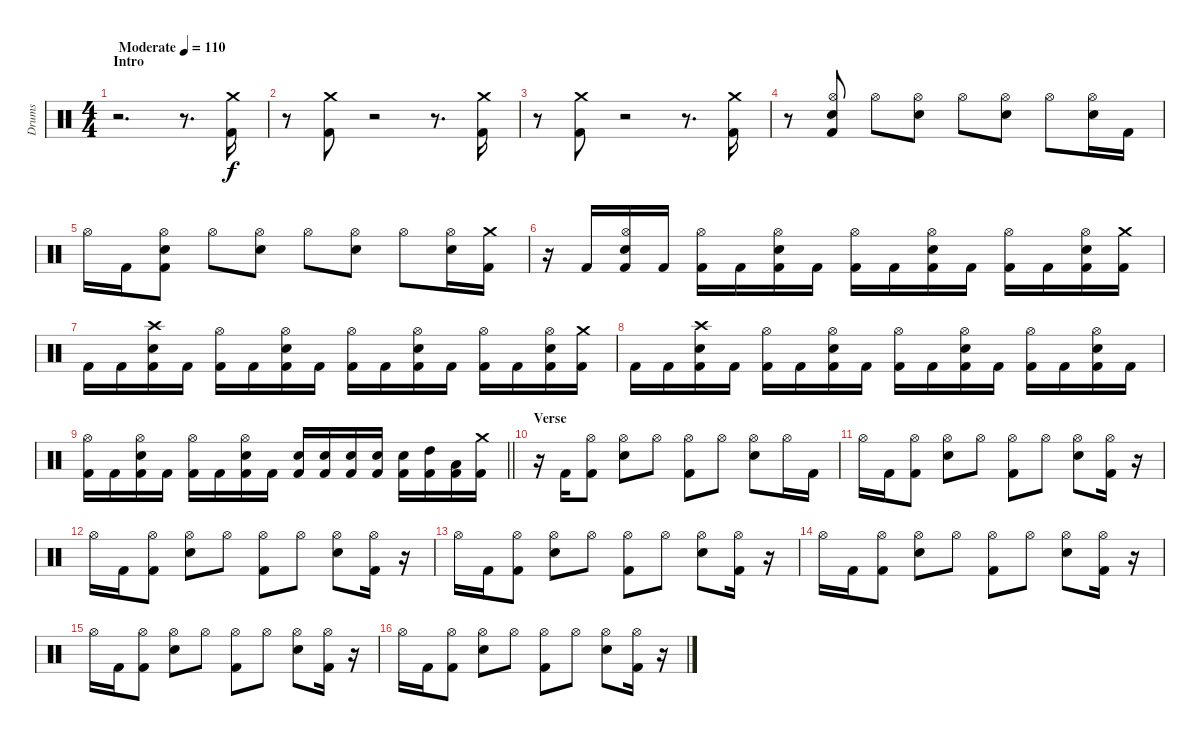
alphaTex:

\track ("Drums" "Drums") {instrument percussion}
\staff {score}
\articulation defaults
\ts (4 4)
\section ("" "Intro")
\tempo (110 "Moderate")
\clef neutral
\ks c
r.2{d dy f} r.8{d} ("Crash medium (hit)" "Kick (hit) 2").16 |
r.8 ("Crash medium (hit)" "Kick (hit) 2").8 r.2 r.8{d} ("Crash medium (hit)" "Kick (hit) 2").16 |
r.8 ("Crash medium (hit)" "Kick (hit) 2").8 r.2 r.8{d} ("Crash medium (hit)" "Kick (hit) 2").16 |
r.8 ("Hi-Hat (open)" "Snare (hit) 2" "Kick (hit) 2").8 "Hi-Hat (open)".8 ("Hi-Hat (open)" "Snare (hit) 2").8 "Hi-Hat (open)".8 ("Hi-Hat (open)" "Snare (hit) 2").8 "Hi-Hat (open)".8 ("Hi-Hat (open)" "Snare (hit) 2").16 "Kick (hit) 2".16 |
"Hi-Hat (open)".16 "Kick (hit) 2".16 ("Hi-Hat (open)" "Snare (hit) 2" "Kick (hit) 2").8 "Hi-Hat (open)".8 ("Hi-Hat (open)" "Snare (hit) 2").8 "Hi-Hat (open)".8 ("Hi-Hat (open)" "Snare (hit) 2").8 "Hi-Hat (open)".8 ("Hi-Hat (open)" "Snare (hit) 2").16 ("Crash medium (hit)" "Kick (hit) 2").16 |
r.16 "Kick (hit) 2".16 ("Hi-Hat (open)" "Snare (hit) 2" "Kick (hit) 2").16 "Kick (hit) 2".16 ("Hi-Hat (open)" "Kick (hit) 2").16 "Kick (hit) 2".16 ("Hi-Hat (open)" "Snare (hit) 2" "Kick (hit) 2").16 "Kick (hit) 2".16 ("Hi-Hat (open)" "Kick (hit) 2").16 "Kick (hit) 2".16 ("Hi-Hat (open)" "Snare (hit) 2" "Kick (hit) 2").16 "Kick (hit) 2".16 ("Hi-Hat (open)" "Kick (hit) 2").16 "Kick (hit) 2".16 ("Hi-Hat (open)" "Snare (hit) 2" "Kick (hit) 2").16 ("Crash medium (hit)" "Kick (hit) 2").16 |
"Kick (hit) 2".16 "Kick (hit) 2".16 ("Crash high (hit)" "Snare (hit) 2" "Kick (hit) 2").16 "Kick (hit) 2".16 ("Hi-Hat (open)" "Kick (hit) 2").16 "Kick (hit) 2".16 ("Hi-Hat (open)" "Snare (hit) 2" "Kick (hit) 2").16 "Kick (hit) 2".16 ("Hi-Hat (open)" "Kick (hit) 2").16 "Kick (hit) 2".16 ("Hi-Hat (open)" "Snare (hit) 2" "Kick (hit) 2").16 "Kick (hit) 2".16 ("Hi-Hat (open)" "Kick (hit) 2").16 "Kick (hit) 2".16 ("Hi-Hat (open)" "Snare (hit) 2" "Kick (hit) 2").16 ("Crash medium (hit)" "Kick (hit) 2").16 |
"Kick (hit) 2".16 "Kick (hit) 2".16 ("Crash high (hit)" "Snare (hit) 2" "Kick (hit) 2").16 "Kick (hit) 2".16 ("Hi-Hat (open)" "Kick (hit) 2").16 "Kick (hit) 2".16 ("Hi-Hat (open)" "Snare (hit) 2" "Kick (hit) 2").16 "Kick (hit) 2".16 ("Hi-Hat (open)" "Kick (hit) 2").16 "Kick (hit) 2".16 ("Hi-Hat (open)" "Snare (hit) 2" "Kick (hit) 2").16 "Kick (hit) 2".16 ("Hi-Hat (open)" "Kick (hit) 2").16 "Kick (hit) 2".16 ("Hi-Hat (open)" "Snare (hit) 2" "Kick (hit) 2").16 "Kick (hit) 2".16 |
\barLineRight lightlight
("Hi-Hat (open)" "Kick (hit) 2").16 "Kick (hit) 2".16 ("Hi-Hat (open)" "Snare (hit) 2" "Kick (hit) 2").16 "Kick (hit) 2".16 ("Hi-Hat (open)" "Kick (hit) 2").16 "Kick (hit) 2".16 ("Hi-Hat (open)" "Snare (hit) 2" "Kick (hit) 2").16 "Kick (hit) 2".16 ("Snare (hit) 2" "Kick (hit) 2").16 ("Snare (hit) 2" "Kick (hit) 2").16 ("Snare (hit) 2" "Kick (hit) 2").16 ("Snare (hit) 2" "Kick (hit) 2").16 ("Snare (hit) 2" "Kick (hit) 2").16 ("High Tom (hit)" "Kick (hit) 2").16 ("Low Tom (hit)" "Kick (hit) 2").16 ("Crash medium (hit)" "Kick (hit) 2").16 |
\section ("" "Verse")
r.16 "Kick (hit) 2".16 ("Hi-Hat (open)" "Kick (hit) 2").8 ("Hi-Hat (open)" "Snare (hit) 2").8 "Hi-Hat (open)".8 ("Hi-Hat (open)" "Kick (hit) 2").8 "Hi-Hat (open)".8 ("Hi-Hat (open)" "Snare (hit) 2").8 "Hi-Hat (open)".16 "Kick (hit) 2".16 |
"Hi-Hat (open)".16 "Kick (hit) 2".16 ("Hi-Hat (open)" "Kick (hit) 2").8 ("Hi-Hat (open)" "Snare (hit) 2").8 "Hi-Hat (open)".8 ("Hi-Hat (open)" "Kick (hit) 2").8 "Hi-Hat (open)".8 ("Hi-Hat (open)" "Snare (hit) 2").8 ("Hi-Hat (open)" "Kick (hit) 2").16 r.16 |
"Hi-Hat (open)".16 "Kick (hit) 2".16 ("Hi-Hat (open)" "Kick (hit) 2").8 ("Hi-Hat (open)" "Snare (hit) 2").8 "Hi-Hat (open)".8 ("Hi-Hat (open)" "Kick (hit) 2").8 "Hi-Hat (open)".8 ("Hi-Hat (open)" "Snare (hit) 2").8 ("Hi-Hat (open)" "Kick (hit) 2").16 r.16 |
"Hi-Hat (open)".16 "Kick (hit) 2".16 ("Hi-Hat (open)" "Kick (hit) 2").8 ("Hi-Hat (open)" "Snare (hit) 2").8 "Hi-Hat (open)".8 ("Hi-Hat (open)" "Kick (hit) 2").8 "Hi-Hat (open)".8 ("Hi-Hat (open)" "Snare (hit) 2").8 ("Hi-Hat (open)" "Kick (hit) 2").16 r.16 |
"Hi-Hat (open)".16 "Kick (hit) 2".16 ("Hi-Hat (open)" "Kick (hit) 2").8 ("Hi-Hat (open)" "Snare (hit) 2").8 "Hi-Hat (open)".8 ("Hi-Hat (open)" "Kick (hit) 2").8 "Hi-Hat (open)".8 ("Hi-Hat (open)" "Snare (hit) 2").8 ("Hi-Hat (open)" "Kick (hit) 2").16 r.16 |
"Hi-Hat (open)".16 "Kick (hit) 2".16 ("Hi-Hat (open)" "Kick (hit) 2").8 ("Hi-Hat (open)" "Snare (hit) 2").8 "Hi-Hat (open)".8 ("Hi-Hat (open)" "Kick (hit) 2").8 "Hi-Hat (open)".8 ("Hi-Hat (open)" "Snare (hit) 2").8 ("Hi-Hat (open)" "Kick (hit) 2").16 r.16 |
"Hi-Hat (open)".16 "Kick (hit) 2".16 ("Hi-Hat (open)" "Kick (hit) 2").8 ("Hi-Hat (open)" "Snare (hit) 2").8 "Hi-Hat (open)".8 ("Hi-Hat (open)" "Kick (hit) 2").8 "Hi-Hat (open)".8 ("Hi-Hat (open)" "Snare (hit) 2").8 ("Hi-Hat (open)" "Kick (hit) 2").16 r.16
